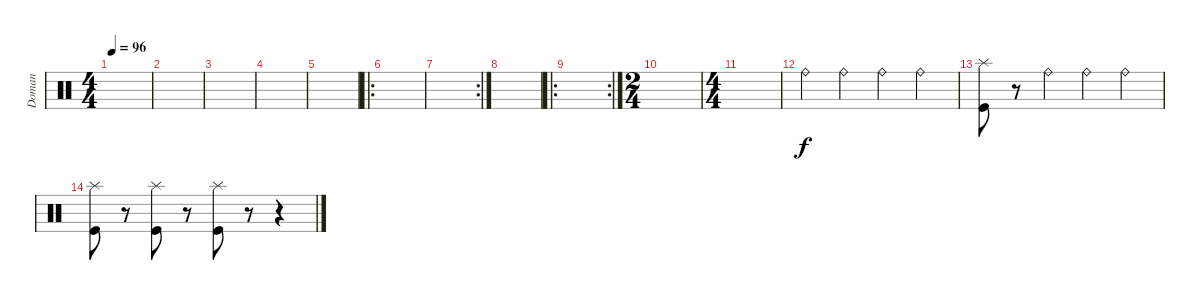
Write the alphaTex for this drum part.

\track ("Doman" "Doman") {instrument percussion}
\staff {score}
\articulation defaults
\ts (4 4)
\tempo 96
\clef neutral
\ks c
|
|
|
|
|
\ro
|
\rc 2
|
|
\ro
\rc 2
|
\ts (2 4)
|
\ts (4 4)
|
"Ride (bell)".4 "Ride (bell)".4 "Ride (bell)".4 "Ride (bell)".4 |
("Splash (hit)" "Kick (hit)").8 r.8 "Ride (bell)".4 "Ride (bell)".4 "Ride (bell)".4 |
("Splash (hit)" "Kick (hit)").8 r.8 ("Splash (hit)" "Kick (hit)").8 r.8 ("Splash (hit)" "Kick (hit)").8 r.8 r.4
